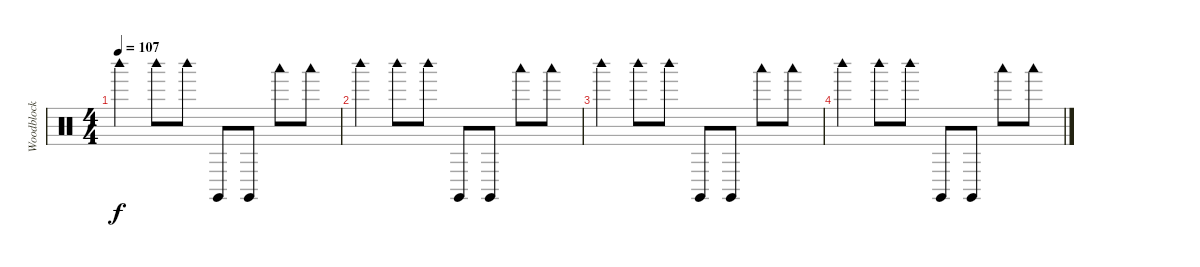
\track ("Woodblock" "Woodblock") {instrument percussion}
\staff {score}
\articulation defaults
\ts (4 4)
\tempo 107
\clef neutral
\ks c "Woodblock high (hit)".4{dy f} "Woodblock high (hit)".8 "Woodblock high (hit)".8 "Claves (hit)".8 "Claves (hit)".8 "Woodblock low (hit)".8 "Woodblock low (hit)".8
|
"Woodblock high (hit)".4 "Woodblock high (hit)".8 "Woodblock high (hit)".8 "Claves (hit)".8 "Claves (hit)".8 "Woodblock low (hit)".8 "Woodblock low (hit)".8 |
"Woodblock high (hit)".4 "Woodblock high (hit)".8 "Woodblock high (hit)".8 "Claves (hit)".8 "Claves (hit)".8 "Woodblock low (hit)".8 "Woodblock low (hit)".8 |
"Woodblock high (hit)".4 "Woodblock high (hit)".8 "Woodblock high (hit)".8 "Claves (hit)".8 "Claves (hit)".8 "Woodblock low (hit)".8 "Woodblock low (hit)".8
